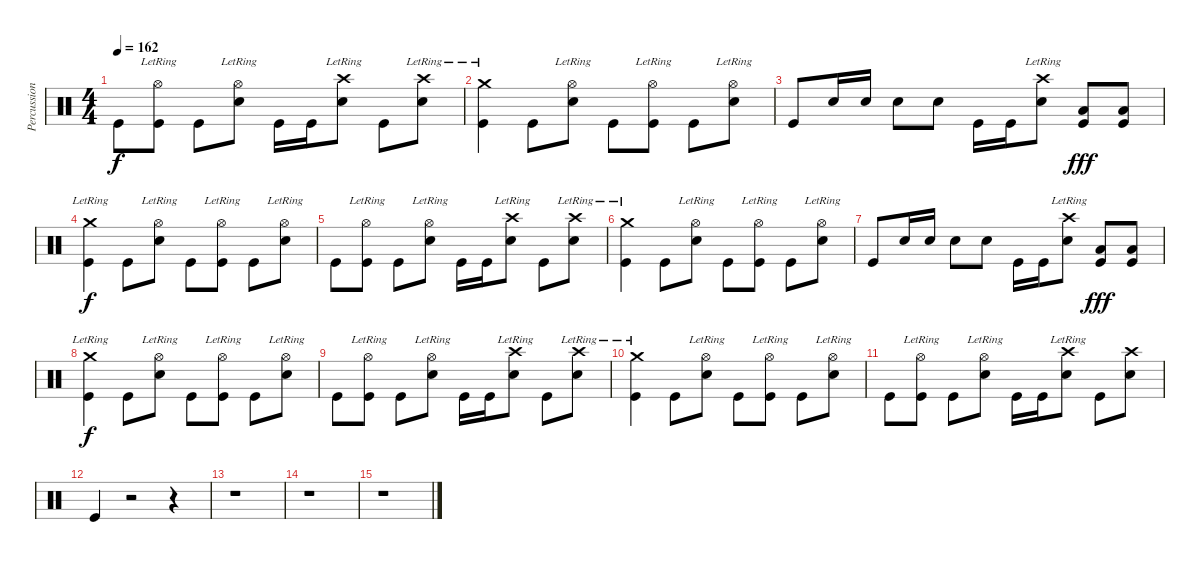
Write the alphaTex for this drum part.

\track ("Percussions" "Percussion") {instrument percussion}
\staff {score}
\articulation defaults
\ts (4 4)
\tempo 162
\clef neutral
\ks c "Kick (hit)".8{dy f}
("Hi-Hat (open)"{lr} "Kick (hit)").8 "Kick (hit)".8 ("Hi-Hat (open)"{lr} "Snare (hit) 2").8 "Kick (hit)".16 "Kick (hit)".16 ("Crash high (hit)"{lr} "Snare (hit) 2").8 "Kick (hit)".8 ("Crash high (hit)"{lr} "Snare (hit) 2").8 |
("Crash medium (hit)"{lr} "Kick (hit)").4 "Kick (hit)".8 ("Hi-Hat (open)"{lr} "Snare (hit) 2").8 "Kick (hit)".8 ("Hi-Hat (open)"{lr} "Kick (hit)").8 "Kick (hit)".8 ("Hi-Hat (open)"{lr} "Snare (hit) 2").8 |
"Kick (hit)".8 "Snare (hit) 2".16 "Snare (hit) 2".16 "Snare (hit) 2".8 "Snare (hit) 2".8 "Kick (hit)".16 "Kick (hit)".16 ("Crash high (hit)"{lr} "Snare (hit) 2").8 ("Low Floor Tom (hit)" "Kick (hit)").8{dy fff} ("Low Floor Tom (hit)" "Kick (hit)").8 |
("Crash medium (hit)"{lr} "Kick (hit)").4{dy f} "Kick (hit)".8 ("Hi-Hat (open)"{lr} "Snare (hit) 2").8 "Kick (hit)".8 ("Hi-Hat (open)"{lr} "Kick (hit)").8 "Kick (hit)".8 ("Hi-Hat (open)"{lr} "Snare (hit) 2").8 |
"Kick (hit)".8 ("Hi-Hat (open)"{lr} "Kick (hit)").8 "Kick (hit)".8 ("Hi-Hat (open)"{lr} "Snare (hit) 2").8 "Kick (hit)".16 "Kick (hit)".16 ("Crash high (hit)"{lr} "Snare (hit) 2").8 "Kick (hit)".8 ("Crash high (hit)"{lr} "Snare (hit) 2").8 |
("Crash medium (hit)"{lr} "Kick (hit)").4 "Kick (hit)".8 ("Hi-Hat (open)"{lr} "Snare (hit) 2").8 "Kick (hit)".8 ("Hi-Hat (open)"{lr} "Kick (hit)").8 "Kick (hit)".8 ("Hi-Hat (open)"{lr} "Snare (hit) 2").8 |
"Kick (hit)".8 "Snare (hit) 2".16 "Snare (hit) 2".16 "Snare (hit) 2".8 "Snare (hit) 2".8 "Kick (hit)".16 "Kick (hit)".16 ("Crash high (hit)"{lr} "Snare (hit) 2").8 ("Low Floor Tom (hit)" "Kick (hit)").8{dy fff} ("Low Floor Tom (hit)" "Kick (hit)").8 |
("Crash medium (hit)"{lr} "Kick (hit)").4{dy f} "Kick (hit)".8 ("Hi-Hat (open)"{lr} "Snare (hit) 2").8 "Kick (hit)".8 ("Hi-Hat (open)"{lr} "Kick (hit)").8 "Kick (hit)".8 ("Hi-Hat (open)"{lr} "Snare (hit) 2").8 |
"Kick (hit)".8 ("Hi-Hat (open)"{lr} "Kick (hit)").8 "Kick (hit)".8 ("Hi-Hat (open)"{lr} "Snare (hit) 2").8 "Kick (hit)".16 "Kick (hit)".16 ("Crash high (hit)"{lr} "Snare (hit) 2").8 "Kick (hit)".8 ("Crash high (hit)"{lr} "Snare (hit) 2").8 |
("Crash medium (hit)"{lr} "Kick (hit)").4 "Kick (hit)".8 ("Hi-Hat (open)"{lr} "Snare (hit) 2").8 "Kick (hit)".8 ("Hi-Hat (open)"{lr} "Kick (hit)").8 "Kick (hit)".8 ("Hi-Hat (open)"{lr} "Snare (hit) 2").8 |
"Kick (hit)".8 ("Hi-Hat (open)"{lr} "Kick (hit)").8 "Kick (hit)".8 ("Hi-Hat (open)"{lr} "Snare (hit) 2").8 "Kick (hit)".16 "Kick (hit)".16 ("Crash high (hit)"{lr} "Snare (hit) 2").8 "Kick (hit)".8 ("Crash high (hit)" "Snare (hit) 2").8 |
"Kick (hit)".4 r.2 r.4 |
r.1 |
r.1 |
r.1
